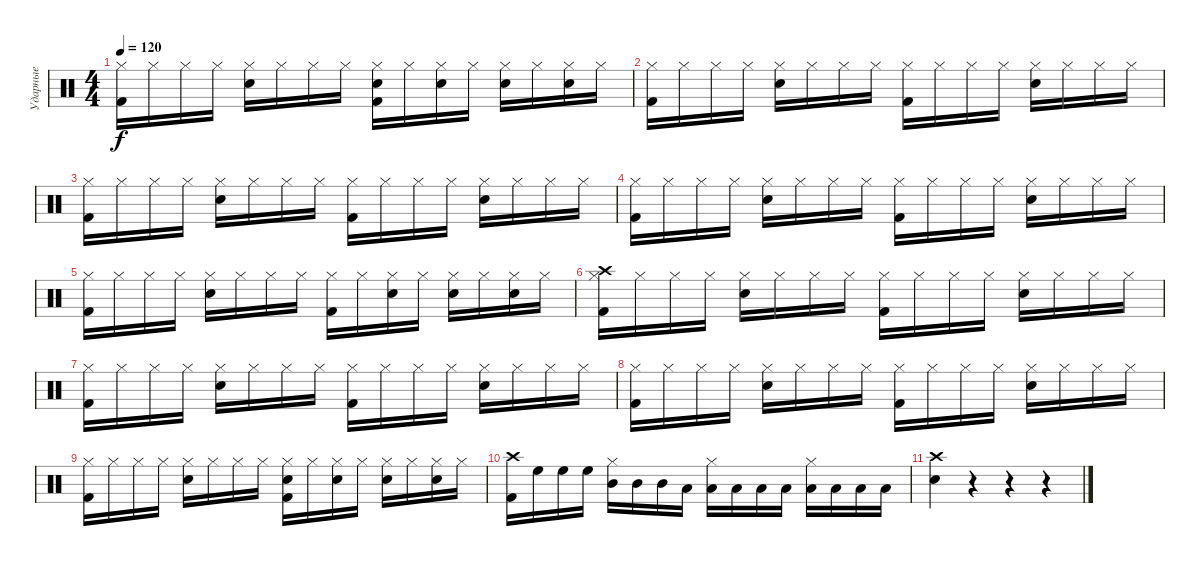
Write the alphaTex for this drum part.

\track ("Ударные" "Ударные") {instrument percussion}
\staff {score}
\articulation defaults
\ts (4 4)
\tempo 120
\clef neutral
\ks c
("Kick (hit) 2" "Hi-Hat (closed)").16{dy f} "Hi-Hat (closed)".16 "Hi-Hat (closed)".16 "Hi-Hat (closed)".16 ("Hi-Hat (closed)" "Snare (hit) 2").16 "Hi-Hat (closed)".16 "Hi-Hat (closed)".16 "Hi-Hat (closed)".16 ("Kick (hit) 2" "Hi-Hat (closed)" "Snare (hit) 2").16 "Hi-Hat (closed)".16 ("Hi-Hat (closed)" "Snare (hit) 2").16 "Hi-Hat (closed)".16 ("Hi-Hat (closed)" "Snare (hit) 2").16 "Hi-Hat (closed)".16 ("Hi-Hat (closed)" "Snare (hit) 2").16 "Hi-Hat (closed)".16 |
("Kick (hit) 2" "Hi-Hat (closed)").16 "Hi-Hat (closed)".16 "Hi-Hat (closed)".16 "Hi-Hat (closed)".16 ("Hi-Hat (closed)" "Snare (hit) 2").16 "Hi-Hat (closed)".16 "Hi-Hat (closed)".16 "Hi-Hat (closed)".16 ("Kick (hit) 2" "Hi-Hat (closed)").16 "Hi-Hat (closed)".16 "Hi-Hat (closed)".16 "Hi-Hat (closed)".16 ("Hi-Hat (closed)" "Snare (hit) 2").16 "Hi-Hat (closed)".16 "Hi-Hat (closed)".16 "Hi-Hat (closed)".16 |
("Kick (hit) 2" "Hi-Hat (closed)").16 "Hi-Hat (closed)".16 "Hi-Hat (closed)".16 "Hi-Hat (closed)".16 ("Hi-Hat (closed)" "Snare (hit) 2").16 "Hi-Hat (closed)".16 "Hi-Hat (closed)".16 "Hi-Hat (closed)".16 ("Kick (hit) 2" "Hi-Hat (closed)").16 "Hi-Hat (closed)".16 "Hi-Hat (closed)".16 "Hi-Hat (closed)".16 ("Hi-Hat (closed)" "Snare (hit) 2").16 "Hi-Hat (closed)".16 "Hi-Hat (closed)".16 "Hi-Hat (closed)".16 |
("Kick (hit) 2" "Hi-Hat (closed)").16 "Hi-Hat (closed)".16 "Hi-Hat (closed)".16 "Hi-Hat (closed)".16 ("Hi-Hat (closed)" "Snare (hit) 2").16 "Hi-Hat (closed)".16 "Hi-Hat (closed)".16 "Hi-Hat (closed)".16 ("Kick (hit) 2" "Hi-Hat (closed)").16 "Hi-Hat (closed)".16 "Hi-Hat (closed)".16 "Hi-Hat (closed)".16 ("Hi-Hat (closed)" "Snare (hit) 2").16 "Hi-Hat (closed)".16 "Hi-Hat (closed)".16 "Hi-Hat (closed)".16 |
("Kick (hit) 2" "Hi-Hat (closed)").16 "Hi-Hat (closed)".16 "Hi-Hat (closed)".16 "Hi-Hat (closed)".16 ("Hi-Hat (closed)" "Snare (hit) 2").16 "Hi-Hat (closed)".16 "Hi-Hat (closed)".16 "Hi-Hat (closed)".16 ("Kick (hit) 2" "Hi-Hat (closed)").16 "Hi-Hat (closed)".16 ("Hi-Hat (closed)" "Snare (hit) 2").16 "Hi-Hat (closed)".16 ("Hi-Hat (closed)" "Snare (hit) 2").16 "Hi-Hat (closed)".16 ("Hi-Hat (closed)" "Snare (hit) 2").16 "Hi-Hat (closed)".16 |
("Kick (hit) 2" "Hi-Hat (closed)" "Crash high (hit)").16 "Hi-Hat (closed)".16 "Hi-Hat (closed)".16 "Hi-Hat (closed)".16 ("Hi-Hat (closed)" "Snare (hit) 2").16 "Hi-Hat (closed)".16 "Hi-Hat (closed)".16 "Hi-Hat (closed)".16 ("Kick (hit) 2" "Hi-Hat (closed)").16 "Hi-Hat (closed)".16 "Hi-Hat (closed)".16 "Hi-Hat (closed)".16 ("Hi-Hat (closed)" "Snare (hit) 2").16 "Hi-Hat (closed)".16 "Hi-Hat (closed)".16 "Hi-Hat (closed)".16 |
("Kick (hit) 2" "Hi-Hat (closed)").16 "Hi-Hat (closed)".16 "Hi-Hat (closed)".16 "Hi-Hat (closed)".16 ("Hi-Hat (closed)" "Snare (hit) 2").16 "Hi-Hat (closed)".16 "Hi-Hat (closed)".16 "Hi-Hat (closed)".16 ("Kick (hit) 2" "Hi-Hat (closed)").16 "Hi-Hat (closed)".16 "Hi-Hat (closed)".16 "Hi-Hat (closed)".16 ("Hi-Hat (closed)" "Snare (hit) 2").16 "Hi-Hat (closed)".16 "Hi-Hat (closed)".16 "Hi-Hat (closed)".16 |
("Kick (hit) 2" "Hi-Hat (closed)").16 "Hi-Hat (closed)".16 "Hi-Hat (closed)".16 "Hi-Hat (closed)".16 ("Hi-Hat (closed)" "Snare (hit) 2").16 "Hi-Hat (closed)".16 "Hi-Hat (closed)".16 "Hi-Hat (closed)".16 ("Kick (hit) 2" "Hi-Hat (closed)").16 "Hi-Hat (closed)".16 "Hi-Hat (closed)".16 "Hi-Hat (closed)".16 ("Hi-Hat (closed)" "Snare (hit) 2").16 "Hi-Hat (closed)".16 "Hi-Hat (closed)".16 "Hi-Hat (closed)".16 |
("Kick (hit) 2" "Hi-Hat (closed)").16 "Hi-Hat (closed)".16 "Hi-Hat (closed)".16 "Hi-Hat (closed)".16 ("Hi-Hat (closed)" "Snare (hit) 2").16 "Hi-Hat (closed)".16 "Hi-Hat (closed)".16 "Hi-Hat (closed)".16 ("Kick (hit) 2" "Hi-Hat (closed)" "Snare (hit) 2").16 "Hi-Hat (closed)".16 ("Hi-Hat (closed)" "Snare (hit) 2").16 "Hi-Hat (closed)".16 ("Hi-Hat (closed)" "Snare (hit) 2").16 "Hi-Hat (closed)".16 ("Hi-Hat (closed)" "Snare (hit) 2").16 "Hi-Hat (closed)".16 |
("Kick (hit) 2" "Crash high (hit)").16 "High Floor Tom (hit)".16 "High Floor Tom (hit)".16 "High Floor Tom (hit)".16 ("Mid Tom (hit)" "Hi-Hat (closed)").16 "Mid Tom (hit)".16 "Mid Tom (hit)".16 "Low Tom (hit)".16 ("Low Tom (hit)" "Hi-Hat (closed)").16 "Low Tom (hit)".16 "Low Tom (hit)".16 "Low Floor Tom (hit)".16 ("Low Floor Tom (hit)" "Hi-Hat (closed)").16 "Low Floor Tom (hit)".16 "Low Floor Tom (hit)".16 "Low Floor Tom (hit)".16 |
("Snare (hit) 2" "Crash high (hit)").4 r.4 r.4 r.4
